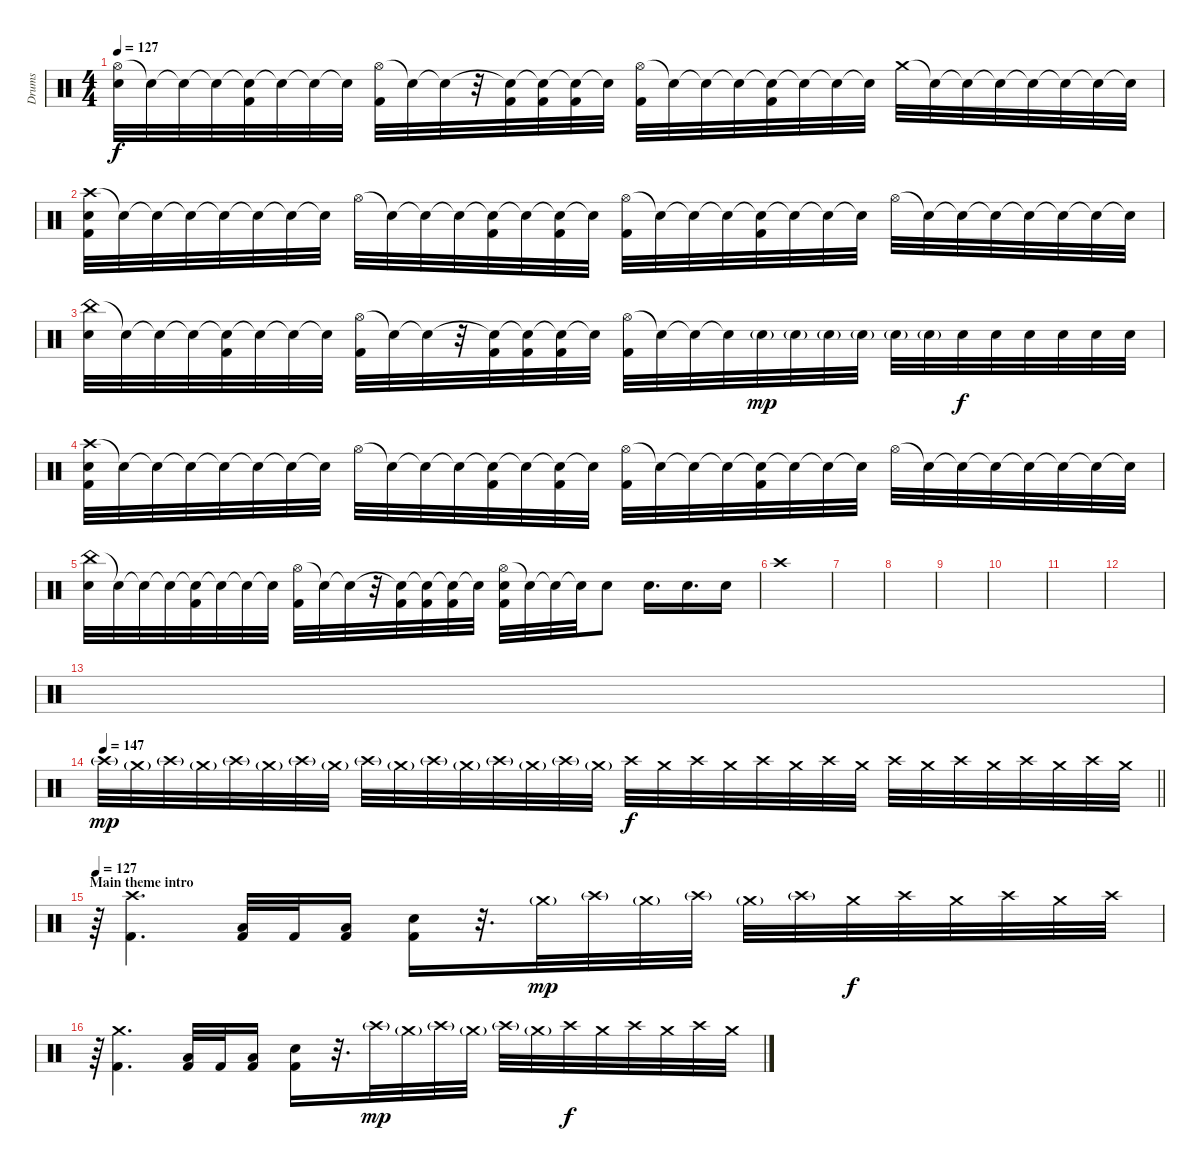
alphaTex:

\track ("Drums" "Drums") {instrument percussion}
\staff {score}
\articulation defaults
\ts (4 4)
\tempo 127
\clef neutral
\ks c
("Hi-Hat (open)" "Snare (hit) 2").32{dy f} "Snare (hit)"{t}.32 "Snare (hit)"{t}.32 "Snare (hit)"{t}.32 ("Snare (hit)"{t} "Kick (hit) 2").32 "Snare (hit)"{t}.32 "Snare (hit)"{t}.32 "Snare (hit)"{t}.32 ("Hi-Hat (open)" "Kick (hit) 2").32 "Snare (hit)"{t}.32 "Snare (hit)"{t}.32 r.32 ("Snare (hit)"{t} "Kick (hit) 2").32 ("Snare (hit)"{t} "Kick (hit) 2").32 ("Snare (hit)"{t} "Kick (hit) 2").32 "Snare (hit)"{t}.32 ("Hi-Hat (open)" "Kick (hit) 2").32 "Snare (hit)"{t}.32 "Snare (hit)"{t}.32 "Snare (hit)"{t}.32 ("Snare (hit)"{t} "Kick (hit) 2").32 "Snare (hit)"{t}.32 "Snare (hit)"{t}.32 "Snare (hit)"{t}.32 "Crash medium (hit)".32 "Snare (hit)"{t}.32 "Snare (hit)"{t}.32 "Snare (hit)"{t}.32 "Snare (hit)"{t}.32 "Snare (hit)"{t}.32 "Snare (hit)"{t}.32 "Snare (hit)"{t}.32 |
("Crash high (hit)" "Snare (hit) 2" "Kick (hit) 2").32 "Snare (hit)"{t}.32 "Snare (hit)"{t}.32 "Snare (hit)"{t}.32 "Snare (hit)"{t}.32 "Snare (hit)"{t}.32 "Snare (hit)"{t}.32 "Snare (hit)"{t}.32 "Hi-Hat (open)".32 "Snare (hit)"{t}.32 "Snare (hit)"{t}.32 "Snare (hit)"{t}.32 ("Snare (hit)"{t} "Kick (hit) 2").32 "Snare (hit)"{t}.32 ("Snare (hit)"{t} "Kick (hit) 2").32 "Snare (hit)"{t}.32 ("Hi-Hat (open)" "Kick (hit) 2").32 "Snare (hit)"{t}.32 "Snare (hit)"{t}.32 "Snare (hit)"{t}.32 ("Snare (hit)"{t} "Kick (hit) 2").32 "Snare (hit)"{t}.32 "Snare (hit)"{t}.32 "Snare (hit)"{t}.32 "Hi-Hat (open)".32 "Snare (hit)"{t}.32 "Snare (hit)"{t}.32 "Snare (hit)"{t}.32 "Snare (hit)"{t}.32 "Snare (hit)"{t}.32 "Snare (hit)"{t}.32 "Snare (hit)"{t}.32 |
("China (hit)" "Snare (hit) 2").32 "Snare (hit)"{t}.32 "Snare (hit)"{t}.32 "Snare (hit)"{t}.32 ("Snare (hit)"{t} "Kick (hit) 2").32 "Snare (hit)"{t}.32 "Snare (hit)"{t}.32 "Snare (hit)"{t}.32 ("Hi-Hat (open)" "Kick (hit) 2").32 "Snare (hit)"{t}.32 "Snare (hit)"{t}.32 r.32 ("Snare (hit)"{t} "Kick (hit) 2").32 ("Snare (hit)"{t} "Kick (hit) 2").32 ("Snare (hit)"{t} "Kick (hit) 2").32 "Snare (hit)"{t}.32 ("Hi-Hat (open)" "Kick (hit) 2").32 "Snare (hit)"{t}.32 "Snare (hit)"{t}.32 "Snare (hit)"{t}.32 "Snare (hit) 2"{g}.32{dy mp} "Snare (hit) 2"{g}.32 "Snare (hit) 2"{g}.32 "Snare (hit) 2"{g}.32 "Snare (hit) 2"{g}.32 "Snare (hit) 2"{g}.32 "Snare (hit) 2".32{dy f} "Snare (hit) 2".32 "Snare (hit) 2".32 "Snare (hit) 2".32 "Snare (hit) 2".32 "Snare (hit) 2".32 |
("Crash high (hit)" "Snare (hit) 2" "Kick (hit) 2").32 "Snare (hit)"{t}.32 "Snare (hit)"{t}.32 "Snare (hit)"{t}.32 "Snare (hit)"{t}.32 "Snare (hit)"{t}.32 "Snare (hit)"{t}.32 "Snare (hit)"{t}.32 "Hi-Hat (open)".32 "Snare (hit)"{t}.32 "Snare (hit)"{t}.32 "Snare (hit)"{t}.32 ("Snare (hit)"{t} "Kick (hit) 2").32 "Snare (hit)"{t}.32 ("Snare (hit)"{t} "Kick (hit) 2").32 "Snare (hit)"{t}.32 ("Hi-Hat (open)" "Kick (hit) 2").32 "Snare (hit)"{t}.32 "Snare (hit)"{t}.32 "Snare (hit)"{t}.32 ("Snare (hit)"{t} "Kick (hit) 2").32 "Snare (hit)"{t}.32 "Snare (hit)"{t}.32 "Snare (hit)"{t}.32 "Hi-Hat (open)".32 "Snare (hit)"{t}.32 "Snare (hit)"{t}.32 "Snare (hit)"{t}.32 "Snare (hit)"{t}.32 "Snare (hit)"{t}.32 "Snare (hit)"{t}.32 "Snare (hit)"{t}.32 |
("China (hit)" "Snare (hit) 2").32 "Snare (hit)"{t}.32 "Snare (hit)"{t}.32 "Snare (hit)"{t}.32 ("Snare (hit)"{t} "Kick (hit) 2").32 "Snare (hit)"{t}.32 "Snare (hit)"{t}.32 "Snare (hit)"{t}.32 ("Hi-Hat (open)" "Kick (hit) 2").32 "Snare (hit)"{t}.32 "Snare (hit)"{t}.32 r.32 ("Snare (hit)"{t} "Kick (hit) 2").32 ("Snare (hit)"{t} "Kick (hit) 2").32 ("Snare (hit)"{t} "Kick (hit) 2").32 "Snare (hit)"{t}.32 ("Hi-Hat (open)" "Snare (hit) 2" "Kick (hit) 2").32 "Snare (hit)"{t}.32 "Snare (hit)"{t}.32 "Snare (hit)"{t}.32 "Snare (hit) 2".8 "Snare (hit) 2".16{d} "Snare (hit) 2".16{d} "Snare (hit) 2".16 |
"Crash high (hit)".1 |
|
|
|
|
|
|
|
\tempo 147
\barLineRight lightlight "Crash high (hit)"{g}.32{dy mp} "Crash medium (hit)"{g}.32 "Crash high (hit)"{g}.32 "Crash medium (hit)"{g}.32 "Crash high (hit)"{g}.32 "Crash medium (hit)"{g}.32 "Crash high (hit)"{g}.32 "Crash medium (hit)"{g}.32 "Crash high (hit)"{g}.32 "Crash medium (hit)"{g}.32 "Crash high (hit)"{g}.32 "Crash medium (hit)"{g}.32 "Crash high (hit)"{g}.32 "Crash medium (hit)"{g}.32 "Crash high (hit)"{g}.32 "Crash medium (hit)"{g}.32 "Crash high (hit)".32{dy f} "Crash medium (hit)".32 "Crash high (hit)".32 "Crash medium (hit)".32 "Crash high (hit)".32 "Crash medium (hit)".32 "Crash high (hit)".32 "Crash medium (hit)".32 "Crash high (hit)".32 "Crash medium (hit)".32 "Crash high (hit)".32 "Crash medium (hit)".32 "Crash high (hit)".32 "Crash medium (hit)".32 "Crash high (hit)".32 "Crash medium (hit)".32
|
\section ("" "Main theme intro")
\tempo 127
r.64 ("Crash high (hit)" "Kick (hit) 2").4{d} ("Low Floor Tom (hit)" "Kick (hit) 2").32 "Kick (hit) 2".32 ("Low Tom (hit)" "Kick (hit) 2").16 ("Snare (hit) 2" "Kick (hit) 2").16 r.32{d} "Crash medium (hit)"{g}.32{dy mp} "Crash high (hit)"{g}.32 "Crash medium (hit)"{g}.32 "Crash high (hit)"{g}.32 "Crash medium (hit)"{g}.32 "Crash high (hit)"{g}.32 "Crash medium (hit)".32{dy f} "Crash high (hit)".32 "Crash medium (hit)".32 "Crash high (hit)".32 "Crash medium (hit)".32 "Crash high (hit)".32 |
r.64 ("Crash medium (hit)" "Kick (hit) 2").4{d} ("Low Tom (hit)" "Kick (hit) 2").32 "Kick (hit) 2".32 ("Low Floor Tom (hit)" "Kick (hit) 2").16 ("Snare (hit) 2" "Kick (hit) 2").16 r.32{d} "Crash high (hit)"{g}.32{dy mp} "Crash medium (hit)"{g}.32 "Crash high (hit)"{g}.32 "Crash medium (hit)"{g}.32 "Crash high (hit)"{g}.32 "Crash medium (hit)"{g}.32 "Crash high (hit)".32{dy f} "Crash medium (hit)".32 "Crash high (hit)".32 "Crash medium (hit)".32 "Crash high (hit)".32 "Crash medium (hit)".32
